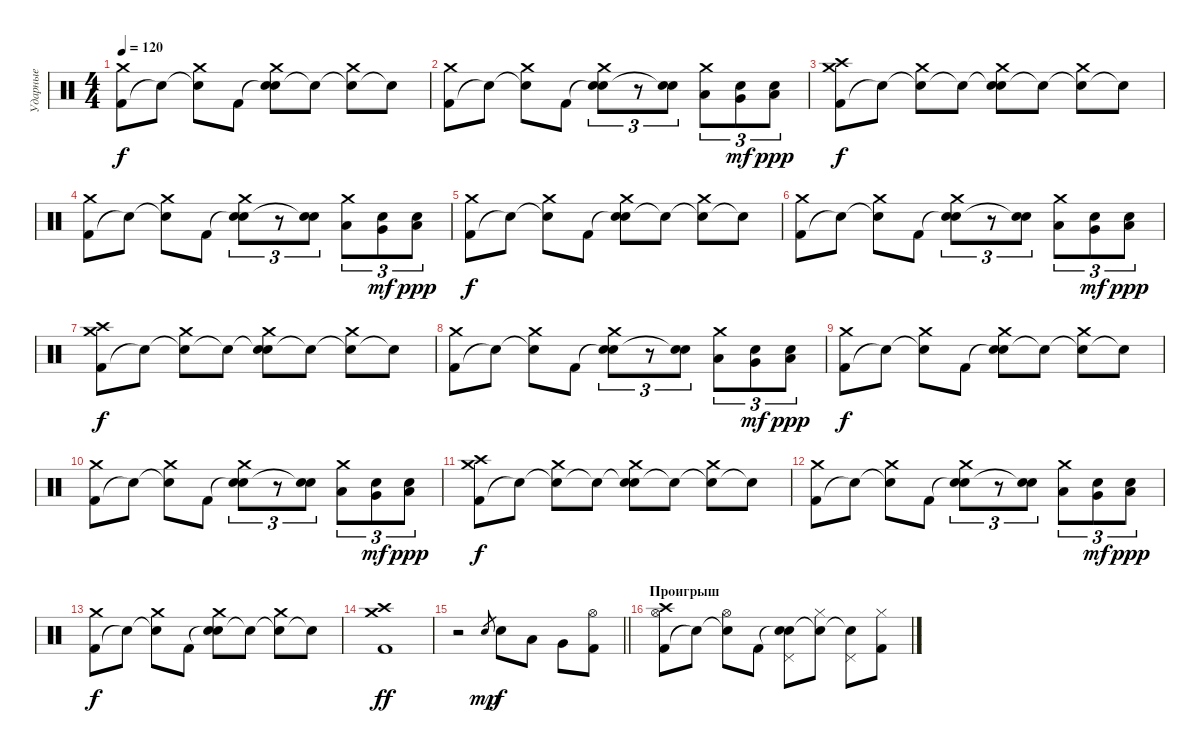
\track ("Ударные" "Ударные") {instrument percussion}
\staff {score}
\articulation defaults
\ts (4 4)
\tempo 120
\clef neutral
\ks c
("Kick (hit) 2" "Crash medium (hit)").8{dy f} "Snare (hit)"{t}.8 ("Snare (hit)"{t} "Crash medium (hit)").8 "Kick (hit) 2".8 ("Snare (hit)"{t} "Crash medium (hit)" "Electric Snare (hit)").8 "Snare (hit)"{t}.8 ("Snare (hit)"{t} "Crash medium (hit)").8 "Snare (hit)"{t}.8 |
("Kick (hit) 2" "Crash medium (hit)").8 "Snare (hit)"{t}.8 ("Snare (hit)"{t} "Crash medium (hit)").8 "Kick (hit) 2".8 ("Snare (hit)"{t} "Crash medium (hit)" "Electric Snare (hit)").8{tu (3 2)} r.8{tu (3 2)} ("Snare (hit)"{t} "Electric Snare (hit)").8{tu (3 2)} ("Low Tom (hit)" "Crash medium (hit)").8{tu (3 2)} ("Very Low Tom (hit)" "Electric Snare (hit)").8{tu (3 2) dy mf} ("Low Floor Tom (hit)" "Electric Snare (hit)").8{tu (3 2) dy ppp} |
("Kick (hit) 2" "Crash medium (hit)" "Crash high (hit)").8{dy f} "Snare (hit)"{t}.8 ("Snare (hit)"{t} "Crash medium (hit)").8 "Snare (hit)"{t}.8 ("Snare (hit)"{t} "Crash medium (hit)" "Electric Snare (hit)").8 "Snare (hit)"{t}.8 ("Snare (hit)"{t} "Crash medium (hit)").8 "Snare (hit)"{t}.8 |
("Kick (hit) 2" "Crash medium (hit)").8 "Snare (hit)"{t}.8 ("Snare (hit)"{t} "Crash medium (hit)").8 "Kick (hit) 2".8 ("Snare (hit)"{t} "Crash medium (hit)" "Electric Snare (hit)").8{tu (3 2)} r.8{tu (3 2)} ("Snare (hit)"{t} "Electric Snare (hit)").8{tu (3 2)} ("Low Tom (hit)" "Crash medium (hit)").8{tu (3 2)} ("Very Low Tom (hit)" "Electric Snare (hit)").8{tu (3 2) dy mf} ("Low Floor Tom (hit)" "Electric Snare (hit)").8{tu (3 2) dy ppp} |
("Kick (hit) 2" "Crash medium (hit)").8{dy f} "Snare (hit)"{t}.8 ("Snare (hit)"{t} "Crash medium (hit)").8 "Kick (hit) 2".8 ("Snare (hit)"{t} "Crash medium (hit)" "Electric Snare (hit)").8 "Snare (hit)"{t}.8 ("Snare (hit)"{t} "Crash medium (hit)").8 "Snare (hit)"{t}.8 |
("Kick (hit) 2" "Crash medium (hit)").8 "Snare (hit)"{t}.8 ("Snare (hit)"{t} "Crash medium (hit)").8 "Kick (hit) 2".8 ("Snare (hit)"{t} "Crash medium (hit)" "Electric Snare (hit)").8{tu (3 2)} r.8{tu (3 2)} ("Snare (hit)"{t} "Electric Snare (hit)").8{tu (3 2)} ("Low Tom (hit)" "Crash medium (hit)").8{tu (3 2)} ("Very Low Tom (hit)" "Electric Snare (hit)").8{tu (3 2) dy mf} ("Low Floor Tom (hit)" "Electric Snare (hit)").8{tu (3 2) dy ppp} |
("Kick (hit) 2" "Crash medium (hit)" "Crash high (hit)").8{dy f} "Snare (hit)"{t}.8 ("Snare (hit)"{t} "Crash medium (hit)").8 "Snare (hit)"{t}.8 ("Snare (hit)"{t} "Crash medium (hit)" "Electric Snare (hit)").8 "Snare (hit)"{t}.8 ("Snare (hit)"{t} "Crash medium (hit)").8 "Snare (hit)"{t}.8 |
("Kick (hit) 2" "Crash medium (hit)").8 "Snare (hit)"{t}.8 ("Snare (hit)"{t} "Crash medium (hit)").8 "Kick (hit) 2".8 ("Snare (hit)"{t} "Crash medium (hit)" "Electric Snare (hit)").8{tu (3 2)} r.8{tu (3 2)} ("Snare (hit)"{t} "Electric Snare (hit)").8{tu (3 2)} ("Low Tom (hit)" "Crash medium (hit)").8{tu (3 2)} ("Very Low Tom (hit)" "Electric Snare (hit)").8{tu (3 2) dy mf} ("Low Floor Tom (hit)" "Electric Snare (hit)").8{tu (3 2) dy ppp} |
("Kick (hit) 2" "Crash medium (hit)").8{dy f} "Snare (hit)"{t}.8 ("Snare (hit)"{t} "Crash medium (hit)").8 "Kick (hit) 2".8 ("Snare (hit)"{t} "Crash medium (hit)" "Electric Snare (hit)").8 "Snare (hit)"{t}.8 ("Snare (hit)"{t} "Crash medium (hit)").8 "Snare (hit)"{t}.8 |
("Kick (hit) 2" "Crash medium (hit)").8 "Snare (hit)"{t}.8 ("Snare (hit)"{t} "Crash medium (hit)").8 "Kick (hit) 2".8 ("Snare (hit)"{t} "Crash medium (hit)" "Electric Snare (hit)").8{tu (3 2)} r.8{tu (3 2)} ("Snare (hit)"{t} "Electric Snare (hit)").8{tu (3 2)} ("Low Tom (hit)" "Crash medium (hit)").8{tu (3 2)} ("Very Low Tom (hit)" "Electric Snare (hit)").8{tu (3 2) dy mf} ("Low Floor Tom (hit)" "Electric Snare (hit)").8{tu (3 2) dy ppp} |
("Kick (hit) 2" "Crash medium (hit)" "Crash high (hit)").8{dy f} "Snare (hit)"{t}.8 ("Snare (hit)"{t} "Crash medium (hit)").8 "Snare (hit)"{t}.8 ("Snare (hit)"{t} "Crash medium (hit)" "Electric Snare (hit)").8 "Snare (hit)"{t}.8 ("Snare (hit)"{t} "Crash medium (hit)").8 "Snare (hit)"{t}.8 |
("Kick (hit) 2" "Crash medium (hit)").8 "Snare (hit)"{t}.8 ("Snare (hit)"{t} "Crash medium (hit)").8 "Kick (hit) 2".8 ("Snare (hit)"{t} "Crash medium (hit)" "Electric Snare (hit)").8{tu (3 2)} r.8{tu (3 2)} ("Snare (hit)"{t} "Electric Snare (hit)").8{tu (3 2)} ("Low Tom (hit)" "Crash medium (hit)").8{tu (3 2)} ("Very Low Tom (hit)" "Electric Snare (hit)").8{tu (3 2) dy mf} ("Low Floor Tom (hit)" "Electric Snare (hit)").8{tu (3 2) dy ppp} |
("Kick (hit) 2" "Crash medium (hit)").8{dy f} "Snare (hit)"{t}.8 ("Snare (hit)"{t} "Crash medium (hit)").8 "Kick (hit) 2".8 ("Snare (hit)"{t} "Crash medium (hit)" "Electric Snare (hit)").8 "Snare (hit)"{t}.8 ("Snare (hit)"{t} "Crash medium (hit)").8 "Snare (hit)"{t}.8 |
("Kick (hit) 2" "Crash medium (hit)" "Crash high (hit)").1{dy ff} |
\barLineRight lightlight
r.2 "Electric Snare (hit)".8{gr dy mp} "Electric Snare (hit)".8{dy f} "Low Tom (hit)".8 "Very Low Tom (hit)".8 ("Kick (hit) 2" "Hi-Hat (open)").8 |
\section ("" "Проигрыш")
("Kick (hit) 2" "Hi-Hat (open)" "Crash high (hit)").8 "Snare (hit)"{t}.8 ("Snare (hit)"{t} "Hi-Hat (open)").8 "Kick (hit) 2".8 ("Snare (hit)"{t} "Pedal Hi-Hat (hit)" "Electric Snare (hit)").8 ("Snare (hit)"{t} "Hi-Hat (closed)").8 ("Snare (hit)"{t} "Pedal Hi-Hat (hit)").8 ("Kick (hit) 2" "Hi-Hat (closed)").8
